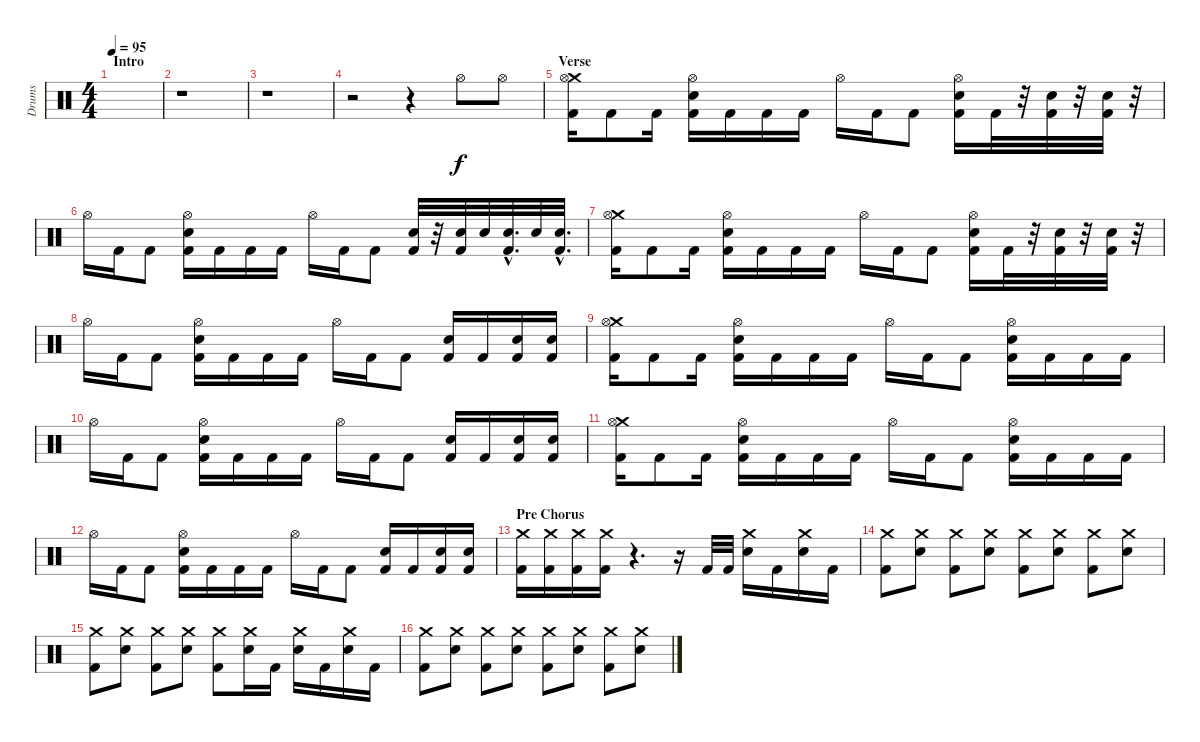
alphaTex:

\track ("Drums" "Drums") {instrument percussion}
\staff {score}
\articulation defaults
\ts (4 4)
\section ("" "Intro")
\tempo 95
\clef neutral
\ks c
|
r.1 |
r.1 |
r.2 r.4 "Hi-Hat (open)".8 "Hi-Hat (open)".8 |
\section ("" "Verse")
("Crash medium (hit)" "Kick (hit) 2" "Hi-Hat (open)").16 "Kick (hit) 2".8 "Kick (hit) 2".16 ("Hi-Hat (open)" "Kick (hit) 2" "Snare (hit) 2").16 "Kick (hit) 2".16 "Kick (hit) 2".16 "Kick (hit) 2".16 "Hi-Hat (open)".16 "Kick (hit) 2".16 "Kick (hit) 2".8 ("Hi-Hat (open)" "Kick (hit) 2" "Snare (hit) 2").16 "Kick (hit) 2".32 r.32 ("Kick (hit) 2" "Snare (hit) 2").32 r.32 ("Kick (hit) 2" "Snare (hit) 2").32 r.32 |
"Hi-Hat (open)".16 "Kick (hit) 2".16 "Kick (hit) 2".8 ("Hi-Hat (open)" "Kick (hit) 2" "Snare (hit) 2").16 "Kick (hit) 2".16 "Kick (hit) 2".16 "Kick (hit) 2".16 "Hi-Hat (open)".16 "Kick (hit) 2".16 "Kick (hit) 2".8 ("Kick (hit) 2" "Snare (hit) 2").32 r.32 ("Kick (hit) 2" "Snare (hit) 2").32 "Snare (hit) 2".32 ("Kick (hit) 2"{hac} "Snare (hit) 2"{hac}).32{d} "Snare (hit) 2".32 ("Kick (hit) 2"{hac} "Snare (hit) 2"{hac}).32{d} |
("Crash medium (hit)" "Kick (hit) 2" "Hi-Hat (open)").16 "Kick (hit) 2".8 "Kick (hit) 2".16 ("Hi-Hat (open)" "Kick (hit) 2" "Snare (hit) 2").16 "Kick (hit) 2".16 "Kick (hit) 2".16 "Kick (hit) 2".16 "Hi-Hat (open)".16 "Kick (hit) 2".16 "Kick (hit) 2".8 ("Hi-Hat (open)" "Kick (hit) 2" "Snare (hit) 2").16 "Kick (hit) 2".32 r.32 ("Kick (hit) 2" "Snare (hit) 2").32 r.32 ("Kick (hit) 2" "Snare (hit) 2").32 r.32 |
"Hi-Hat (open)".16 "Kick (hit) 2".16 "Kick (hit) 2".8 ("Hi-Hat (open)" "Kick (hit) 2" "Snare (hit) 2").16 "Kick (hit) 2".16 "Kick (hit) 2".16 "Kick (hit) 2".16 "Hi-Hat (open)".16 "Kick (hit) 2".16 "Kick (hit) 2".8 ("Snare (hit) 2" "Kick (hit) 2").16 "Kick (hit) 2".16 ("Snare (hit) 2" "Kick (hit) 2").16 ("Snare (hit) 2" "Kick (hit) 2").16 |
("Crash medium (hit)" "Kick (hit) 2" "Hi-Hat (open)").16 "Kick (hit) 2".8 "Kick (hit) 2".16 ("Hi-Hat (open)" "Kick (hit) 2" "Snare (hit) 2").16 "Kick (hit) 2".16 "Kick (hit) 2".16 "Kick (hit) 2".16 "Hi-Hat (open)".16 "Kick (hit) 2".16 "Kick (hit) 2".8 ("Hi-Hat (open)" "Kick (hit) 2" "Snare (hit) 2").16 "Kick (hit) 2".16 "Kick (hit) 2".16 "Kick (hit) 2".16 |
"Hi-Hat (open)".16 "Kick (hit) 2".16 "Kick (hit) 2".8 ("Hi-Hat (open)" "Kick (hit) 2" "Snare (hit) 2").16 "Kick (hit) 2".16 "Kick (hit) 2".16 "Kick (hit) 2".16 "Hi-Hat (open)".16 "Kick (hit) 2".16 "Kick (hit) 2".8 ("Snare (hit) 2" "Kick (hit) 2").16 "Kick (hit) 2".16 ("Snare (hit) 2" "Kick (hit) 2").16 ("Snare (hit) 2" "Kick (hit) 2").16 |
("Crash medium (hit)" "Kick (hit) 2" "Hi-Hat (open)").16 "Kick (hit) 2".8 "Kick (hit) 2".16 ("Hi-Hat (open)" "Kick (hit) 2" "Snare (hit) 2").16 "Kick (hit) 2".16 "Kick (hit) 2".16 "Kick (hit) 2".16 "Hi-Hat (open)".16 "Kick (hit) 2".16 "Kick (hit) 2".8 ("Hi-Hat (open)" "Kick (hit) 2" "Snare (hit) 2").16 "Kick (hit) 2".16 "Kick (hit) 2".16 "Kick (hit) 2".16 |
"Hi-Hat (open)".16 "Kick (hit) 2".16 "Kick (hit) 2".8 ("Hi-Hat (open)" "Kick (hit) 2" "Snare (hit) 2").16 "Kick (hit) 2".16 "Kick (hit) 2".16 "Kick (hit) 2".16 "Hi-Hat (open)".16 "Kick (hit) 2".16 "Kick (hit) 2".8 ("Snare (hit) 2" "Kick (hit) 2").16 "Kick (hit) 2".16 ("Snare (hit) 2" "Kick (hit) 2").16 ("Snare (hit) 2" "Kick (hit) 2").16 |
\section ("" "Pre Chorus")
("Crash medium (hit)" "Kick (hit) 2").16 ("Crash medium (hit)" "Kick (hit) 2").16 ("Crash medium (hit)" "Kick (hit) 2").16 ("Crash medium (hit)" "Kick (hit) 2").16 r.4{d} r.16 "Kick (hit) 2".32 "Kick (hit) 2".32 ("Crash medium (hit)" "Electric Snare (hit)").16 "Kick (hit) 2".16 ("Crash medium (hit)" "Electric Snare (hit)").16 "Kick (hit) 2".16 |
("Crash medium (hit)" "Kick (hit) 2").8 ("Crash medium (hit)" "Electric Snare (hit)").8 ("Crash medium (hit)" "Kick (hit) 2").8 ("Crash medium (hit)" "Electric Snare (hit)").8 ("Crash medium (hit)" "Kick (hit) 2").8 ("Crash medium (hit)" "Electric Snare (hit)").8 ("Crash medium (hit)" "Kick (hit) 2").8 ("Crash medium (hit)" "Electric Snare (hit)").8 |
("Crash medium (hit)" "Kick (hit) 2").8 ("Crash medium (hit)" "Electric Snare (hit)").8 ("Crash medium (hit)" "Kick (hit) 2").8 ("Crash medium (hit)" "Electric Snare (hit)").8 ("Crash medium (hit)" "Kick (hit) 2").8 ("Crash medium (hit)" "Electric Snare (hit)").16 "Kick (hit) 2".16 ("Crash medium (hit)" "Electric Snare (hit)").16 "Kick (hit) 2".16 ("Crash medium (hit)" "Electric Snare (hit)").16 "Kick (hit) 2".16 |
("Crash medium (hit)" "Kick (hit) 2").8 ("Crash medium (hit)" "Electric Snare (hit)").8 ("Crash medium (hit)" "Kick (hit) 2").8 ("Crash medium (hit)" "Electric Snare (hit)").8 ("Crash medium (hit)" "Kick (hit) 2").8 ("Crash medium (hit)" "Electric Snare (hit)").8 ("Crash medium (hit)" "Kick (hit) 2").8 ("Crash medium (hit)" "Electric Snare (hit)").8
